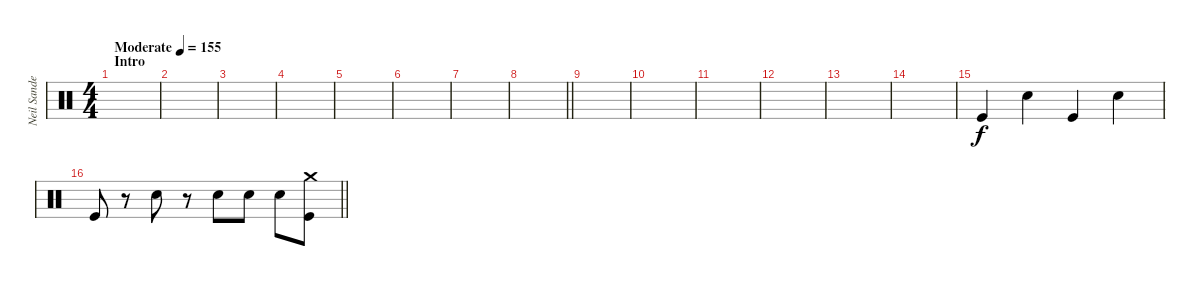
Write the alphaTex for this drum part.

\track ("Neil Sanderson" "Neil Sande") {instrument percussion}
\staff {score}
\articulation defaults
\ts (4 4)
\section ("" "Intro")
\tempo (155 "Moderate")
\clef neutral
\ks c
|
|
|
|
|
|
|
\barLineRight lightlight
|
\section ("" "")
|
|
|
|
|
|
"Kick (hit)".4 "Electric Snare (hit)".4 "Kick (hit)".4 "Electric Snare (hit)".4 |
\barLineRight lightlight "Kick (hit)".8
r.8 "Electric Snare (hit)".8 r.8 "Electric Snare (hit)".8 "Electric Snare (hit)".8 "Electric Snare (hit)".8 ("Kick (hit)" "Crash medium (hit)").8
